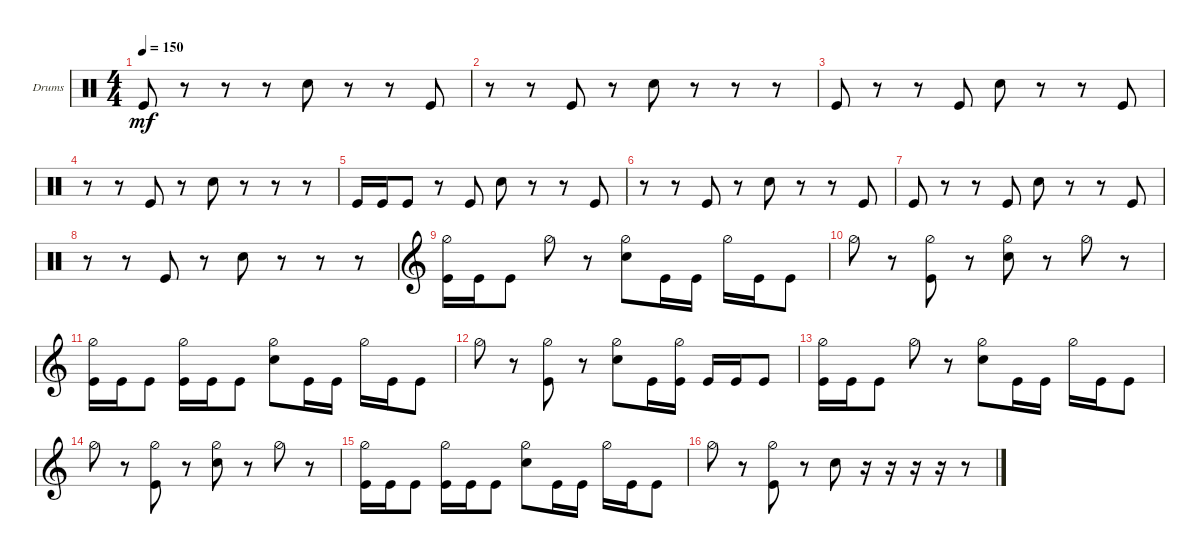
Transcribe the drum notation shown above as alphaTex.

\bracketExtendMode groupsimilarinstruments
\firstSystemTrackNameOrientation horizontal
\otherSystemsTrackNameOrientation horizontal
\track ("Drumkit" "Drums") {instrument percussion}
\staff {score}
\articulation defaults
\ts (4 4)
\tempo 150
\clef neutral
\ks c "Kick (hit)".8{dy mf}
r.8 r.8 r.8 "Snare (hit) 2".8 r.8 r.8 "Kick (hit)".8 |
r.8 r.8 "Kick (hit)".8 r.8 "Snare (hit) 2".8 r.8 r.8 r.8 |
"Kick (hit)".8 r.8 r.8 "Kick (hit)".8 "Snare (hit) 2".8 r.8 r.8 "Kick (hit)".8 |
r.8 r.8 "Kick (hit)".8 r.8 "Snare (hit) 2".8 r.8 r.8 r.8 |
"Kick (hit)".16 "Kick (hit)".16 "Kick (hit)".8 r.8 "Kick (hit)".8 "Snare (hit) 2".8 r.8 r.8 "Kick (hit)".8 |
r.8 r.8 "Kick (hit)".8 r.8 "Snare (hit) 2".8 r.8 r.8 "Kick (hit)".8 |
"Kick (hit)".8 r.8 r.8 "Kick (hit)".8 "Snare (hit) 2".8 r.8 r.8 "Kick (hit)".8 |
r.8 r.8 "Kick (hit)".8 r.8 "Snare (hit) 2".8 r.8 r.8 r.8 |
\clef g2
("Kick (hit)" "Hi-Hat (half)").16 "Kick (hit)".16 "Kick (hit)".8 "Hi-Hat (half)".8 r.8 ("Snare (hit) 2" "Hi-Hat (half)").8 "Kick (hit)".16 "Kick (hit)".16 "Hi-Hat (half)".16 "Kick (hit)".16 "Kick (hit)".8 |
"Hi-Hat (half)".8 r.8 ("Kick (hit)" "Hi-Hat (half)").8 r.8 ("Snare (hit) 2" "Hi-Hat (half)").8 r.8 "Hi-Hat (half)".8 r.8 |
("Kick (hit)" "Hi-Hat (half)").16 "Kick (hit)".16 "Kick (hit)".8 ("Kick (hit)" "Hi-Hat (half)").16 "Kick (hit)".16 "Kick (hit)".8 ("Snare (hit) 2" "Hi-Hat (half)").8 "Kick (hit)".16 "Kick (hit)".16 "Hi-Hat (half)".16 "Kick (hit)".16 "Kick (hit)".8 |
"Hi-Hat (half)".8 r.8 ("Kick (hit)" "Hi-Hat (half)").8 r.8 ("Snare (hit) 2" "Hi-Hat (half)").8 "Kick (hit)".16 ("Kick (hit)" "Hi-Hat (half)").16 "Kick (hit)".16 "Kick (hit)".16 "Kick (hit)".8 |
("Kick (hit)" "Hi-Hat (half)").16 "Kick (hit)".16 "Kick (hit)".8 "Hi-Hat (half)".8 r.8 ("Snare (hit) 2" "Hi-Hat (half)").8 "Kick (hit)".16 "Kick (hit)".16 "Hi-Hat (half)".16 "Kick (hit)".16 "Kick (hit)".8 |
"Hi-Hat (half)".8 r.8 ("Kick (hit)" "Hi-Hat (half)").8 r.8 ("Snare (hit) 2" "Hi-Hat (half)").8 r.8 "Hi-Hat (half)".8 r.8 |
("Kick (hit)" "Hi-Hat (half)").16 "Kick (hit)".16 "Kick (hit)".8 ("Kick (hit)" "Hi-Hat (half)").16 "Kick (hit)".16 "Kick (hit)".8 ("Snare (hit) 2" "Hi-Hat (half)").8 "Kick (hit)".16 "Kick (hit)".16 "Hi-Hat (half)".16 "Kick (hit)".16 "Kick (hit)".8 |
"Hi-Hat (half)".8 r.8 ("Kick (hit)" "Hi-Hat (half)").8 r.8 "Snare (hit) 2".8 r.16 r.16 r.16 r.16 r.8
